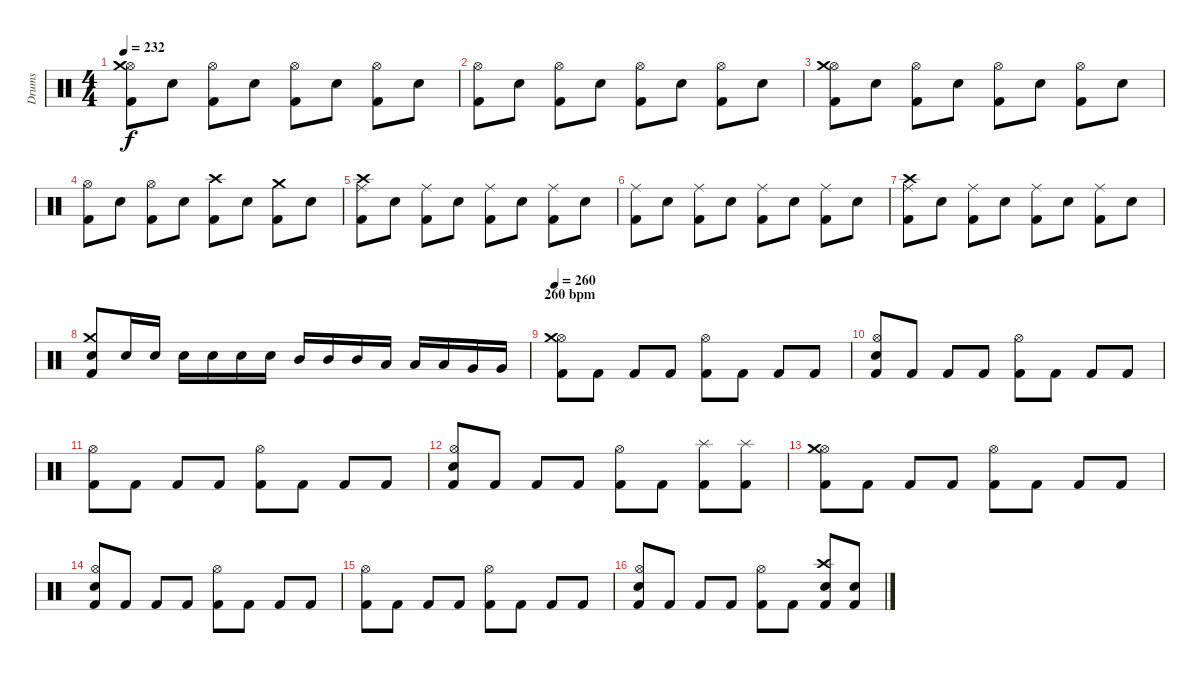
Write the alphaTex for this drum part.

\track ("Drums" "Drums") {instrument percussion}
\staff {score}
\articulation defaults
\ts (4 4)
\tempo 232
\clef neutral
\ks c
("Kick (hit) 2" "Hi-Hat (open)" "Crash medium (hit)").8{dy f} "Snare (hit) 2".8 ("Kick (hit) 2" "Hi-Hat (open)").8 "Snare (hit) 2".8 ("Kick (hit) 2" "Hi-Hat (open)").8 "Snare (hit) 2".8 ("Kick (hit) 2" "Hi-Hat (open)").8 "Snare (hit) 2".8 |
("Kick (hit) 2" "Hi-Hat (open)").8 "Snare (hit) 2".8 ("Kick (hit) 2" "Hi-Hat (open)").8 "Snare (hit) 2".8 ("Kick (hit) 2" "Hi-Hat (open)").8 "Snare (hit) 2".8 ("Kick (hit) 2" "Hi-Hat (open)").8 "Snare (hit) 2".8 |
("Kick (hit) 2" "Hi-Hat (open)" "Crash medium (hit)").8 "Snare (hit) 2".8 ("Kick (hit) 2" "Hi-Hat (open)").8 "Snare (hit) 2".8 ("Kick (hit) 2" "Hi-Hat (open)").8 "Snare (hit) 2".8 ("Kick (hit) 2" "Hi-Hat (open)").8 "Snare (hit) 2".8 |
("Kick (hit) 2" "Hi-Hat (open)").8 "Snare (hit) 2".8 ("Kick (hit) 2" "Hi-Hat (open)").8 "Snare (hit) 2".8 ("Kick (hit) 2" "Crash high (hit)").8 "Snare (hit) 2".8 ("Kick (hit) 2" "Crash medium (hit)").8 "Snare (hit) 2".8 |
("Kick (hit) 2" "Ride (middle)" "Crash high (hit)").8 "Snare (hit) 2".8 ("Kick (hit) 2" "Ride (middle)").8 "Snare (hit) 2".8 ("Kick (hit) 2" "Ride (middle)").8 "Snare (hit) 2".8 ("Kick (hit) 2" "Ride (middle)").8 "Snare (hit) 2".8 |
("Kick (hit) 2" "Ride (middle)").8 "Snare (hit) 2".8 ("Kick (hit) 2" "Ride (middle)").8 "Snare (hit) 2".8 ("Kick (hit) 2" "Ride (middle)").8 "Snare (hit) 2".8 ("Kick (hit) 2" "Ride (middle)").8 "Snare (hit) 2".8 |
("Kick (hit) 2" "Ride (middle)" "Crash high (hit)").8 "Snare (hit) 2".8 ("Kick (hit) 2" "Ride (middle)").8 "Snare (hit) 2".8 ("Kick (hit) 2" "Ride (middle)").8 "Snare (hit) 2".8 ("Kick (hit) 2" "Ride (middle)").8 "Snare (hit) 2".8 |
("Kick (hit) 2" "Snare (hit) 2" "Crash medium (hit)").8 "Snare (hit) 2".16 "Snare (hit) 2".16 "Snare (hit) 2".16 "Snare (hit) 2".16 "Snare (hit) 2".16 "Snare (hit) 2".16 "Mid Tom (hit)".16 "Mid Tom (hit)".16 "Mid Tom (hit)".16 "Low Tom (hit)".16 "Low Tom (hit)".16 "Low Tom (hit)".16 "Very Low Tom (hit)".16 "Very Low Tom (hit)".16 |
\section ("" "260 bpm")
\tempo 260
("Kick (hit) 2" "Hi-Hat (open)" "Crash medium (hit)").8 "Kick (hit) 2".8 "Kick (hit) 2".8 "Kick (hit) 2".8 ("Kick (hit) 2" "Hi-Hat (open)").8 "Kick (hit) 2".8 "Kick (hit) 2".8 "Kick (hit) 2".8 |
("Kick (hit) 2" "Electric Snare (hit)" "Hi-Hat (open)").8 "Kick (hit) 2".8 "Kick (hit) 2".8 "Kick (hit) 2".8 ("Kick (hit) 2" "Hi-Hat (open)").8 "Kick (hit) 2".8 "Kick (hit) 2".8 "Kick (hit) 2".8 |
("Kick (hit) 2" "Hi-Hat (open)").8 "Kick (hit) 2".8 "Kick (hit) 2".8 "Kick (hit) 2".8 ("Kick (hit) 2" "Hi-Hat (open)").8 "Kick (hit) 2".8 "Kick (hit) 2".8 "Kick (hit) 2".8 |
("Kick (hit) 2" "Electric Snare (hit)" "Hi-Hat (open)").8 "Kick (hit) 2".8 "Kick (hit) 2".8 "Kick (hit) 2".8 ("Kick (hit) 2" "Hi-Hat (open)").8 "Kick (hit) 2".8 ("Kick (hit) 2" "Splash (hit)").8 ("Kick (hit) 2" "Splash (hit)").8 |
("Kick (hit) 2" "Hi-Hat (open)" "Crash medium (hit)").8 "Kick (hit) 2".8 "Kick (hit) 2".8 "Kick (hit) 2".8 ("Kick (hit) 2" "Hi-Hat (open)").8 "Kick (hit) 2".8 "Kick (hit) 2".8 "Kick (hit) 2".8 |
("Kick (hit) 2" "Electric Snare (hit)" "Hi-Hat (open)").8 "Kick (hit) 2".8 "Kick (hit) 2".8 "Kick (hit) 2".8 ("Kick (hit) 2" "Hi-Hat (open)").8 "Kick (hit) 2".8 "Kick (hit) 2".8 "Kick (hit) 2".8 |
("Kick (hit) 2" "Hi-Hat (open)").8 "Kick (hit) 2".8 "Kick (hit) 2".8 "Kick (hit) 2".8 ("Kick (hit) 2" "Hi-Hat (open)").8 "Kick (hit) 2".8 "Kick (hit) 2".8 "Kick (hit) 2".8 |
("Kick (hit) 2" "Electric Snare (hit)" "Hi-Hat (open)").8 "Kick (hit) 2".8 "Kick (hit) 2".8 "Kick (hit) 2".8 ("Kick (hit) 2" "Hi-Hat (open)").8 "Kick (hit) 2".8 ("Kick (hit) 2" "Electric Snare (hit)" "Crash high (hit)").8 ("Kick (hit) 2" "Electric Snare (hit)").8
